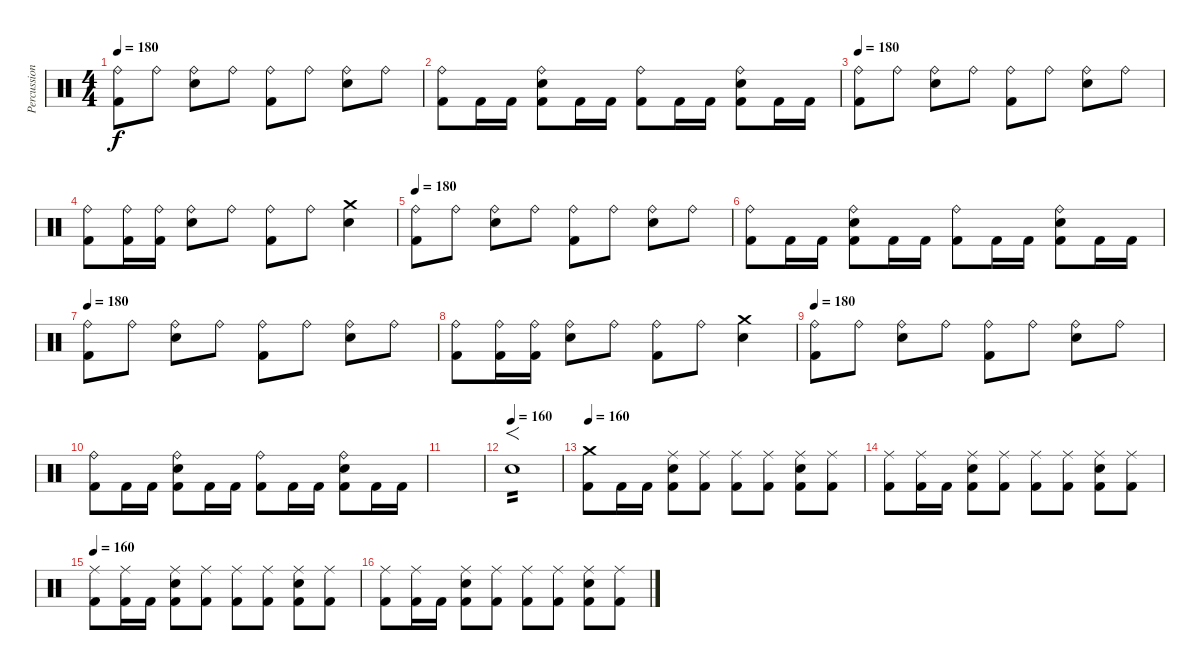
\track ("Percussions" "Percussion") {instrument percussion}
\staff {score}
\articulation defaults
\ts (4 4)
\tempo 180
\clef neutral
\ks c
("Ride (bell)" "Kick (hit) 2").8{dy f} "Ride (bell)".8 ("Ride (bell)" "Electric Snare (hit)").8 "Ride (bell)".8 ("Ride (bell)" "Kick (hit) 2").8 "Ride (bell)".8 ("Ride (bell)" "Electric Snare (hit)").8 "Ride (bell)".8 |
("Ride (bell)" "Kick (hit) 2").8 "Kick (hit) 2".16 "Kick (hit) 2".16 ("Ride (bell)" "Electric Snare (hit)" "Kick (hit) 2").8 "Kick (hit) 2".16 "Kick (hit) 2".16 ("Ride (bell)" "Kick (hit) 2").8 "Kick (hit) 2".16 "Kick (hit) 2".16 ("Ride (bell)" "Electric Snare (hit)" "Kick (hit) 2").8 "Kick (hit) 2".16 "Kick (hit) 2".16 |
\tempo 180
("Ride (bell)" "Kick (hit) 2").8 "Ride (bell)".8 ("Ride (bell)" "Electric Snare (hit)").8 "Ride (bell)".8 ("Ride (bell)" "Kick (hit) 2").8 "Ride (bell)".8 ("Ride (bell)" "Electric Snare (hit)").8 "Ride (bell)".8 |
("Ride (bell)" "Kick (hit) 2").8 ("Ride (bell)" "Kick (hit) 2").16 ("Ride (bell)" "Kick (hit) 2").16 ("Ride (bell)" "Electric Snare (hit)").8 "Ride (bell)".8 ("Ride (bell)" "Kick (hit) 2").8 "Ride (bell)".8 ("Crash medium (hit)" "Electric Snare (hit)").4 |
\tempo 180
("Ride (bell)" "Kick (hit) 2").8 "Ride (bell)".8 ("Ride (bell)" "Electric Snare (hit)").8 "Ride (bell)".8 ("Ride (bell)" "Kick (hit) 2").8 "Ride (bell)".8 ("Ride (bell)" "Electric Snare (hit)").8 "Ride (bell)".8 |
("Ride (bell)" "Kick (hit) 2").8 "Kick (hit) 2".16 "Kick (hit) 2".16 ("Ride (bell)" "Electric Snare (hit)" "Kick (hit) 2").8 "Kick (hit) 2".16 "Kick (hit) 2".16 ("Ride (bell)" "Kick (hit) 2").8 "Kick (hit) 2".16 "Kick (hit) 2".16 ("Ride (bell)" "Electric Snare (hit)" "Kick (hit) 2").8 "Kick (hit) 2".16 "Kick (hit) 2".16 |
\tempo 180
("Ride (bell)" "Kick (hit) 2").8 "Ride (bell)".8 ("Ride (bell)" "Electric Snare (hit)").8 "Ride (bell)".8 ("Ride (bell)" "Kick (hit) 2").8 "Ride (bell)".8 ("Ride (bell)" "Electric Snare (hit)").8 "Ride (bell)".8 |
("Ride (bell)" "Kick (hit) 2").8 ("Ride (bell)" "Kick (hit) 2").16 ("Ride (bell)" "Kick (hit) 2").16 ("Ride (bell)" "Electric Snare (hit)").8 "Ride (bell)".8 ("Ride (bell)" "Kick (hit) 2").8 "Ride (bell)".8 ("Crash medium (hit)" "Electric Snare (hit)").4 |
\tempo 180
("Ride (bell)" "Kick (hit) 2").8 "Ride (bell)".8 ("Ride (bell)" "Electric Snare (hit)").8 "Ride (bell)".8 ("Ride (bell)" "Kick (hit) 2").8 "Ride (bell)".8 ("Ride (bell)" "Electric Snare (hit)").8 "Ride (bell)".8 |
("Ride (bell)" "Kick (hit) 2").8 "Kick (hit) 2".16 "Kick (hit) 2".16 ("Ride (bell)" "Electric Snare (hit)" "Kick (hit) 2").8 "Kick (hit) 2".16 "Kick (hit) 2".16 ("Ride (bell)" "Kick (hit) 2").8 "Kick (hit) 2".16 "Kick (hit) 2".16 ("Ride (bell)" "Electric Snare (hit)" "Kick (hit) 2").8 "Kick (hit) 2".16 "Kick (hit) 2".16 |
|
\tempo (160)
"Electric Snare (hit)".1{f tp 2} |
\tempo 160
("Kick (hit) 2" "Crash medium (hit)").8 "Kick (hit) 2".16 "Kick (hit) 2".16 ("Kick (hit) 2" "Electric Snare (hit)" "Ride (middle)").8 ("Kick (hit) 2" "Ride (middle)").8 ("Kick (hit) 2" "Ride (middle)").8 ("Kick (hit) 2" "Ride (middle)").8 ("Kick (hit) 2" "Electric Snare (hit)" "Ride (middle)").8 ("Kick (hit) 2" "Ride (middle)").8 |
("Kick (hit) 2" "Ride (middle)").8 ("Kick (hit) 2" "Ride (middle)").16 "Kick (hit) 2".16 ("Kick (hit) 2" "Electric Snare (hit)" "Ride (middle)").8 ("Kick (hit) 2" "Ride (middle)").8 ("Kick (hit) 2" "Ride (middle)").8 ("Kick (hit) 2" "Ride (middle)").8 ("Kick (hit) 2" "Electric Snare (hit)" "Ride (middle)").8 ("Kick (hit) 2" "Ride (middle)").8 |
\tempo 160
("Kick (hit) 2" "Ride (middle)").8 ("Kick (hit) 2" "Ride (middle)").16 "Kick (hit) 2".16 ("Kick (hit) 2" "Electric Snare (hit)" "Ride (middle)").8 ("Kick (hit) 2" "Ride (middle)").8 ("Kick (hit) 2" "Ride (middle)").8 ("Kick (hit) 2" "Ride (middle)").8 ("Kick (hit) 2" "Electric Snare (hit)" "Ride (middle)").8 ("Kick (hit) 2" "Ride (middle)").8 |
("Kick (hit) 2" "Ride (middle)").8 ("Kick (hit) 2" "Ride (middle)").16 "Kick (hit) 2".16 ("Kick (hit) 2" "Electric Snare (hit)" "Ride (middle)").8 ("Kick (hit) 2" "Ride (middle)").8 ("Kick (hit) 2" "Ride (middle)").8 ("Kick (hit) 2" "Ride (middle)").8 ("Kick (hit) 2" "Electric Snare (hit)" "Ride (middle)").8 ("Kick (hit) 2" "Ride (middle)").8
